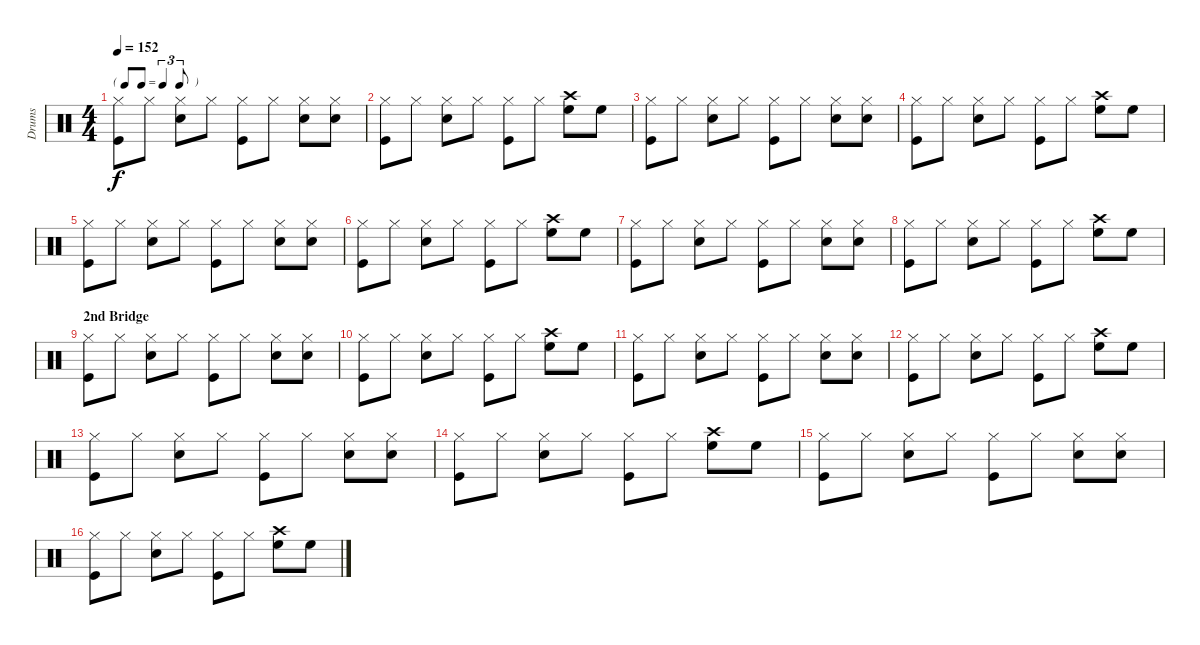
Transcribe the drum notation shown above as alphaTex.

\track ("Drums" "Drums") {instrument percussion}
\staff {score}
\articulation defaults
\ts (4 4)
\tf triplet8th
\tempo 152
\clef neutral
\ks c
("Hi-Hat (closed)" "Kick (hit)").8{dy f} "Hi-Hat (closed)".8 ("Hi-Hat (closed)" "Snare (hit) 2").8 "Hi-Hat (closed)".8 ("Hi-Hat (closed)" "Kick (hit)").8 "Hi-Hat (closed)".8 ("Hi-Hat (closed)" "Snare (hit) 2").8 ("Hi-Hat (closed)" "Snare (hit) 2").8 |
("Hi-Hat (closed)" "Kick (hit)").8 "Hi-Hat (closed)".8 ("Hi-Hat (closed)" "Snare (hit) 2").8 "Hi-Hat (closed)".8 ("Hi-Hat (closed)" "Kick (hit)").8 "Hi-Hat (closed)".8 ("Crash high (hit)" "High Floor Tom (hit)").8 "High Floor Tom (hit)".8 |
("Hi-Hat (closed)" "Kick (hit)").8 "Hi-Hat (closed)".8 ("Hi-Hat (closed)" "Snare (hit) 2").8 "Hi-Hat (closed)".8 ("Hi-Hat (closed)" "Kick (hit)").8 "Hi-Hat (closed)".8 ("Hi-Hat (closed)" "Snare (hit) 2").8 ("Hi-Hat (closed)" "Snare (hit) 2").8 |
("Hi-Hat (closed)" "Kick (hit)").8 "Hi-Hat (closed)".8 ("Hi-Hat (closed)" "Snare (hit) 2").8 "Hi-Hat (closed)".8 ("Hi-Hat (closed)" "Kick (hit)").8 "Hi-Hat (closed)".8 ("Crash high (hit)" "High Floor Tom (hit)").8 "High Floor Tom (hit)".8 |
("Hi-Hat (closed)" "Kick (hit)").8 "Hi-Hat (closed)".8 ("Hi-Hat (closed)" "Snare (hit) 2").8 "Hi-Hat (closed)".8 ("Hi-Hat (closed)" "Kick (hit)").8 "Hi-Hat (closed)".8 ("Hi-Hat (closed)" "Snare (hit) 2").8 ("Hi-Hat (closed)" "Snare (hit) 2").8 |
("Hi-Hat (closed)" "Kick (hit)").8 "Hi-Hat (closed)".8 ("Hi-Hat (closed)" "Snare (hit) 2").8 "Hi-Hat (closed)".8 ("Hi-Hat (closed)" "Kick (hit)").8 "Hi-Hat (closed)".8 ("Crash high (hit)" "High Floor Tom (hit)").8 "High Floor Tom (hit)".8 |
("Hi-Hat (closed)" "Kick (hit)").8 "Hi-Hat (closed)".8 ("Hi-Hat (closed)" "Snare (hit) 2").8 "Hi-Hat (closed)".8 ("Hi-Hat (closed)" "Kick (hit)").8 "Hi-Hat (closed)".8 ("Hi-Hat (closed)" "Snare (hit) 2").8 ("Hi-Hat (closed)" "Snare (hit) 2").8 |
("Hi-Hat (closed)" "Kick (hit)").8 "Hi-Hat (closed)".8 ("Hi-Hat (closed)" "Snare (hit) 2").8 "Hi-Hat (closed)".8 ("Hi-Hat (closed)" "Kick (hit)").8 "Hi-Hat (closed)".8 ("Crash high (hit)" "High Floor Tom (hit)").8 "High Floor Tom (hit)".8 |
\section ("" "2nd Bridge")
("Hi-Hat (closed)" "Kick (hit)").8 "Hi-Hat (closed)".8 ("Hi-Hat (closed)" "Snare (hit) 2").8 "Hi-Hat (closed)".8 ("Hi-Hat (closed)" "Kick (hit)").8 "Hi-Hat (closed)".8 ("Hi-Hat (closed)" "Snare (hit) 2").8 ("Hi-Hat (closed)" "Snare (hit) 2").8 |
("Hi-Hat (closed)" "Kick (hit)").8 "Hi-Hat (closed)".8 ("Hi-Hat (closed)" "Snare (hit) 2").8 "Hi-Hat (closed)".8 ("Hi-Hat (closed)" "Kick (hit)").8 "Hi-Hat (closed)".8 ("Crash high (hit)" "High Floor Tom (hit)").8 "High Floor Tom (hit)".8 |
("Hi-Hat (closed)" "Kick (hit)").8 "Hi-Hat (closed)".8 ("Hi-Hat (closed)" "Snare (hit) 2").8 "Hi-Hat (closed)".8 ("Hi-Hat (closed)" "Kick (hit)").8 "Hi-Hat (closed)".8 ("Hi-Hat (closed)" "Snare (hit) 2").8 ("Hi-Hat (closed)" "Snare (hit) 2").8 |
("Hi-Hat (closed)" "Kick (hit)").8 "Hi-Hat (closed)".8 ("Hi-Hat (closed)" "Snare (hit) 2").8 "Hi-Hat (closed)".8 ("Hi-Hat (closed)" "Kick (hit)").8 "Hi-Hat (closed)".8 ("Crash high (hit)" "High Floor Tom (hit)").8 "High Floor Tom (hit)".8 |
("Hi-Hat (closed)" "Kick (hit)").8 "Hi-Hat (closed)".8 ("Hi-Hat (closed)" "Snare (hit) 2").8 "Hi-Hat (closed)".8 ("Hi-Hat (closed)" "Kick (hit)").8 "Hi-Hat (closed)".8 ("Hi-Hat (closed)" "Snare (hit) 2").8 ("Hi-Hat (closed)" "Snare (hit) 2").8 |
("Hi-Hat (closed)" "Kick (hit)").8 "Hi-Hat (closed)".8 ("Hi-Hat (closed)" "Snare (hit) 2").8 "Hi-Hat (closed)".8 ("Hi-Hat (closed)" "Kick (hit)").8 "Hi-Hat (closed)".8 ("Crash high (hit)" "High Floor Tom (hit)").8 "High Floor Tom (hit)".8 |
("Hi-Hat (closed)" "Kick (hit)").8 "Hi-Hat (closed)".8 ("Hi-Hat (closed)" "Snare (hit) 2").8 "Hi-Hat (closed)".8 ("Hi-Hat (closed)" "Kick (hit)").8 "Hi-Hat (closed)".8 ("Hi-Hat (closed)" "Snare (hit) 2").8 ("Hi-Hat (closed)" "Snare (hit) 2").8 |
("Hi-Hat (closed)" "Kick (hit)").8 "Hi-Hat (closed)".8 ("Hi-Hat (closed)" "Snare (hit) 2").8 "Hi-Hat (closed)".8 ("Hi-Hat (closed)" "Kick (hit)").8 "Hi-Hat (closed)".8 ("Crash high (hit)" "High Floor Tom (hit)").8 "High Floor Tom (hit)".8
